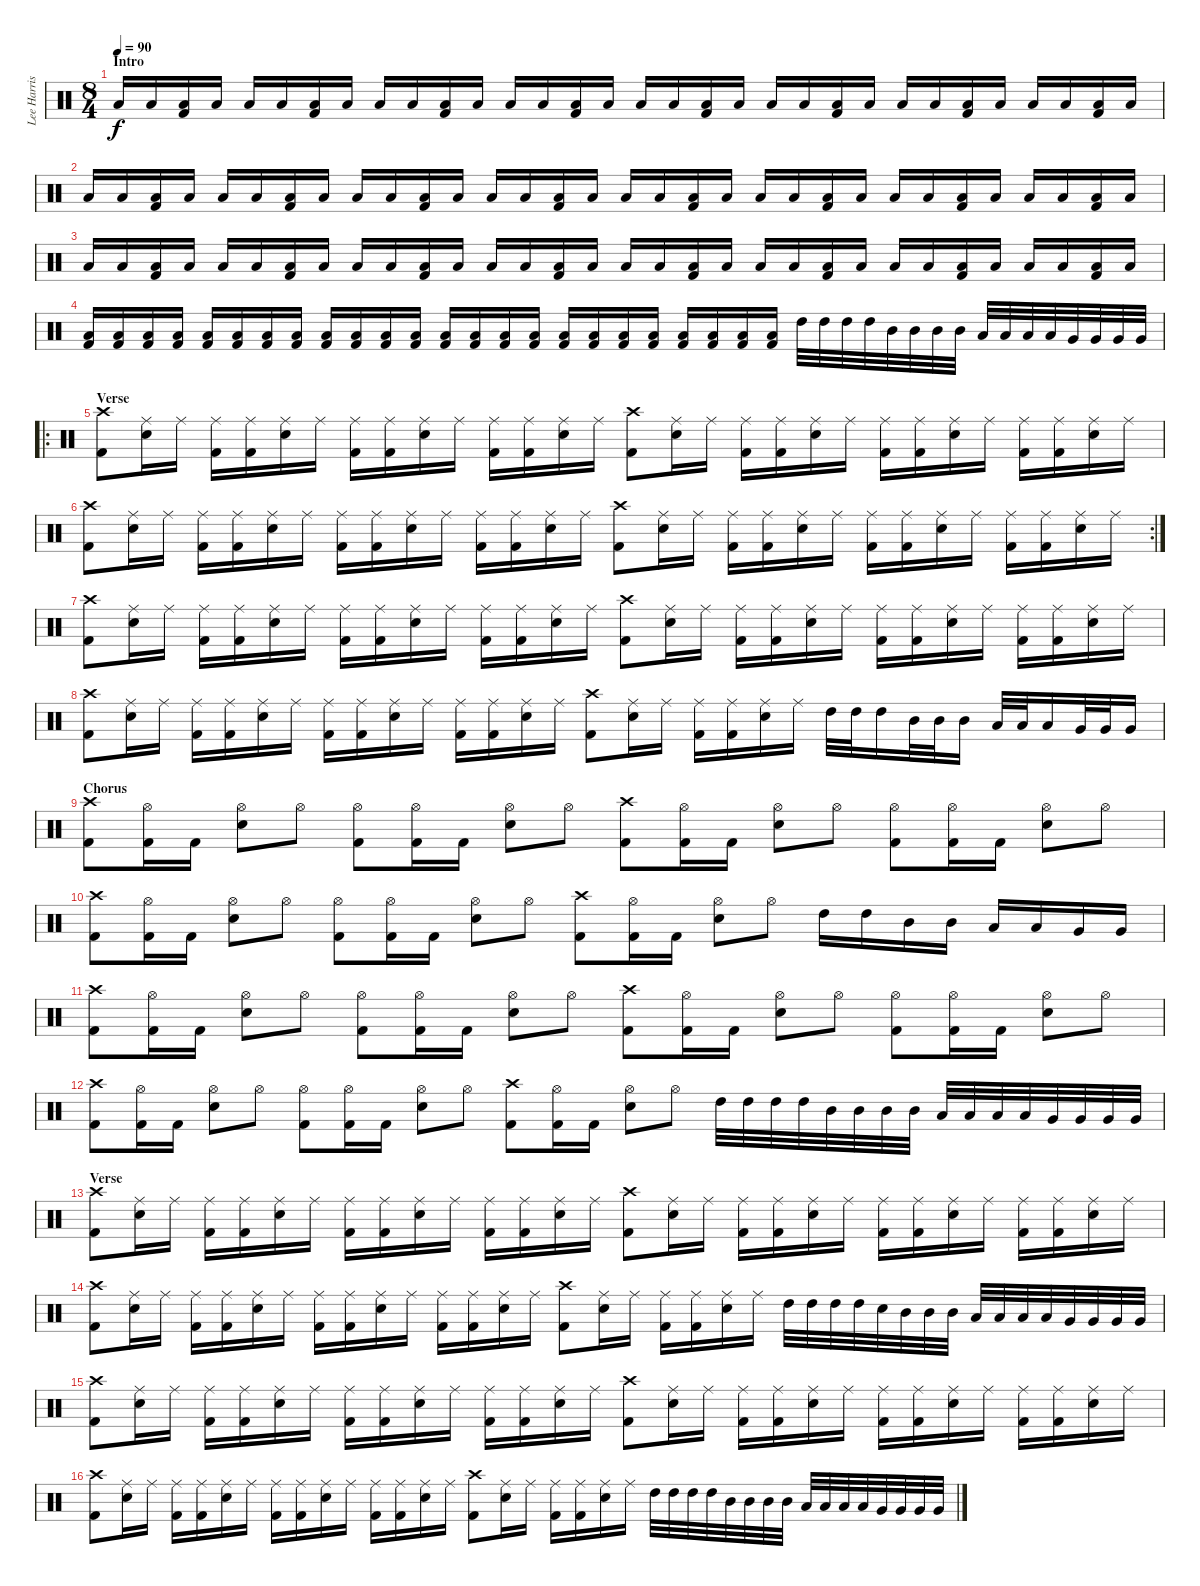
\track ("Lee Harris" "Lee Harris") {instrument percussion}
\staff {score}
\articulation defaults
\ts (8 4)
\section ("" "Intro")
\tempo 90
\clef neutral
\ks c "Low Floor Tom (hit)".16{dy f} "Low Floor Tom (hit)".16
("Low Floor Tom (hit)" "Kick (hit) 2").16 "Low Floor Tom (hit)".16 "Low Floor Tom (hit)".16 "Low Floor Tom (hit)".16 ("Low Floor Tom (hit)" "Kick (hit) 2").16 "Low Floor Tom (hit)".16 "Low Floor Tom (hit)".16 "Low Floor Tom (hit)".16 ("Low Floor Tom (hit)" "Kick (hit) 2").16 "Low Floor Tom (hit)".16 "Low Floor Tom (hit)".16 "Low Floor Tom (hit)".16 ("Low Floor Tom (hit)" "Kick (hit) 2").16 "Low Floor Tom (hit)".16 "Low Floor Tom (hit)".16 "Low Floor Tom (hit)".16 ("Low Floor Tom (hit)" "Kick (hit) 2").16 "Low Floor Tom (hit)".16 "Low Floor Tom (hit)".16 "Low Floor Tom (hit)".16 ("Low Floor Tom (hit)" "Kick (hit) 2").16 "Low Floor Tom (hit)".16 "Low Floor Tom (hit)".16 "Low Floor Tom (hit)".16 ("Low Floor Tom (hit)" "Kick (hit) 2").16 "Low Floor Tom (hit)".16 "Low Floor Tom (hit)".16 "Low Floor Tom (hit)".16 ("Low Floor Tom (hit)" "Kick (hit) 2").16 "Low Floor Tom (hit)".16 |
"Low Floor Tom (hit)".16 "Low Floor Tom (hit)".16 ("Low Floor Tom (hit)" "Kick (hit) 2").16 "Low Floor Tom (hit)".16 "Low Floor Tom (hit)".16 "Low Floor Tom (hit)".16 ("Low Floor Tom (hit)" "Kick (hit) 2").16 "Low Floor Tom (hit)".16 "Low Floor Tom (hit)".16 "Low Floor Tom (hit)".16 ("Low Floor Tom (hit)" "Kick (hit) 2").16 "Low Floor Tom (hit)".16 "Low Floor Tom (hit)".16 "Low Floor Tom (hit)".16 ("Low Floor Tom (hit)" "Kick (hit) 2").16 "Low Floor Tom (hit)".16 "Low Floor Tom (hit)".16 "Low Floor Tom (hit)".16 ("Low Floor Tom (hit)" "Kick (hit) 2").16 "Low Floor Tom (hit)".16 "Low Floor Tom (hit)".16 "Low Floor Tom (hit)".16 ("Low Floor Tom (hit)" "Kick (hit) 2").16 "Low Floor Tom (hit)".16 "Low Floor Tom (hit)".16 "Low Floor Tom (hit)".16 ("Low Floor Tom (hit)" "Kick (hit) 2").16 "Low Floor Tom (hit)".16 "Low Floor Tom (hit)".16 "Low Floor Tom (hit)".16 ("Low Floor Tom (hit)" "Kick (hit) 2").16 "Low Floor Tom (hit)".16 |
"Low Floor Tom (hit)".16 "Low Floor Tom (hit)".16 ("Low Floor Tom (hit)" "Kick (hit) 2").16 "Low Floor Tom (hit)".16 "Low Floor Tom (hit)".16 "Low Floor Tom (hit)".16 ("Low Floor Tom (hit)" "Kick (hit) 2").16 "Low Floor Tom (hit)".16 "Low Floor Tom (hit)".16 "Low Floor Tom (hit)".16 ("Low Floor Tom (hit)" "Kick (hit) 2").16 "Low Floor Tom (hit)".16 "Low Floor Tom (hit)".16 "Low Floor Tom (hit)".16 ("Low Floor Tom (hit)" "Kick (hit) 2").16 "Low Floor Tom (hit)".16 "Low Floor Tom (hit)".16 "Low Floor Tom (hit)".16 ("Low Floor Tom (hit)" "Kick (hit) 2").16 "Low Floor Tom (hit)".16 "Low Floor Tom (hit)".16 "Low Floor Tom (hit)".16 ("Low Floor Tom (hit)" "Kick (hit) 2").16 "Low Floor Tom (hit)".16 "Low Floor Tom (hit)".16 "Low Floor Tom (hit)".16 ("Low Floor Tom (hit)" "Kick (hit) 2").16 "Low Floor Tom (hit)".16 "Low Floor Tom (hit)".16 "Low Floor Tom (hit)".16 ("Low Floor Tom (hit)" "Kick (hit) 2").16 "Low Floor Tom (hit)".16 |
("Low Floor Tom (hit)" "Kick (hit) 2").16 ("Low Floor Tom (hit)" "Kick (hit) 2").16 ("Low Floor Tom (hit)" "Kick (hit) 2").16 ("Low Floor Tom (hit)" "Kick (hit) 2").16 ("Low Floor Tom (hit)" "Kick (hit) 2").16 ("Low Floor Tom (hit)" "Kick (hit) 2").16 ("Low Floor Tom (hit)" "Kick (hit) 2").16 ("Low Floor Tom (hit)" "Kick (hit) 2").16 ("Low Floor Tom (hit)" "Kick (hit) 2").16 ("Low Floor Tom (hit)" "Kick (hit) 2").16 ("Low Floor Tom (hit)" "Kick (hit) 2").16 ("Low Floor Tom (hit)" "Kick (hit) 2").16 ("Low Floor Tom (hit)" "Kick (hit) 2").16 ("Low Floor Tom (hit)" "Kick (hit) 2").16 ("Low Floor Tom (hit)" "Kick (hit) 2").16 ("Low Floor Tom (hit)" "Kick (hit) 2").16 ("Low Floor Tom (hit)" "Kick (hit) 2").16 ("Low Floor Tom (hit)" "Kick (hit) 2").16 ("Low Floor Tom (hit)" "Kick (hit) 2").16 ("Low Floor Tom (hit)" "Kick (hit) 2").16 ("Low Floor Tom (hit)" "Kick (hit) 2").16 ("Low Floor Tom (hit)" "Kick (hit) 2").16 ("Low Floor Tom (hit)" "Kick (hit) 2").16 ("Low Floor Tom (hit)" "Kick (hit) 2").16 "High Tom (hit)".32 "High Tom (hit)".32 "High Tom (hit)".32 "High Tom (hit)".32 "Mid Tom (hit)".32 "Mid Tom (hit)".32 "Mid Tom (hit)".32 "Mid Tom (hit)".32 "Low Tom (hit)".32 "Low Tom (hit)".32 "Low Tom (hit)".32 "Low Tom (hit)".32 "Very Low Tom (hit)".32 "Very Low Tom (hit)".32 "Very Low Tom (hit)".32 "Very Low Tom (hit)".32 |
\ro
\section ("" "Verse")
("Crash high (hit)" "Kick (hit) 2").8 ("Ride (middle)" "Electric Snare (hit)").16 "Ride (middle)".16 ("Ride (middle)" "Kick (hit) 2").16 ("Ride (middle)" "Kick (hit) 2").16 ("Ride (middle)" "Electric Snare (hit)").16 "Ride (middle)".16 ("Ride (middle)" "Kick (hit) 2").16 ("Ride (middle)" "Kick (hit) 2").16 ("Ride (middle)" "Electric Snare (hit)").16 "Ride (middle)".16 ("Ride (middle)" "Kick (hit) 2").16 ("Ride (middle)" "Kick (hit) 2").16 ("Ride (middle)" "Electric Snare (hit)").16 "Ride (middle)".16 ("Crash high (hit)" "Kick (hit) 2").8 ("Ride (middle)" "Electric Snare (hit)").16 "Ride (middle)".16 ("Ride (middle)" "Kick (hit) 2").16 ("Ride (middle)" "Kick (hit) 2").16 ("Ride (middle)" "Electric Snare (hit)").16 "Ride (middle)".16 ("Ride (middle)" "Kick (hit) 2").16 ("Ride (middle)" "Kick (hit) 2").16 ("Ride (middle)" "Electric Snare (hit)").16 "Ride (middle)".16 ("Ride (middle)" "Kick (hit) 2").16 ("Ride (middle)" "Kick (hit) 2").16 ("Ride (middle)" "Electric Snare (hit)").16 "Ride (middle)".16 |
\rc 2
("Crash high (hit)" "Kick (hit) 2").8 ("Ride (middle)" "Electric Snare (hit)").16 "Ride (middle)".16 ("Ride (middle)" "Kick (hit) 2").16 ("Ride (middle)" "Kick (hit) 2").16 ("Ride (middle)" "Electric Snare (hit)").16 "Ride (middle)".16 ("Ride (middle)" "Kick (hit) 2").16 ("Ride (middle)" "Kick (hit) 2").16 ("Ride (middle)" "Electric Snare (hit)").16 "Ride (middle)".16 ("Ride (middle)" "Kick (hit) 2").16 ("Ride (middle)" "Kick (hit) 2").16 ("Ride (middle)" "Electric Snare (hit)").16 "Ride (middle)".16 ("Crash high (hit)" "Kick (hit) 2").8 ("Ride (middle)" "Electric Snare (hit)").16 "Ride (middle)".16 ("Ride (middle)" "Kick (hit) 2").16 ("Ride (middle)" "Kick (hit) 2").16 ("Ride (middle)" "Electric Snare (hit)").16 "Ride (middle)".16 ("Ride (middle)" "Kick (hit) 2").16 ("Ride (middle)" "Kick (hit) 2").16 ("Ride (middle)" "Electric Snare (hit)").16 "Ride (middle)".16 ("Ride (middle)" "Kick (hit) 2").16 ("Ride (middle)" "Kick (hit) 2").16 ("Ride (middle)" "Electric Snare (hit)").16 "Ride (middle)".16 |
("Crash high (hit)" "Kick (hit) 2").8 ("Ride (middle)" "Electric Snare (hit)").16 "Ride (middle)".16 ("Ride (middle)" "Kick (hit) 2").16 ("Ride (middle)" "Kick (hit) 2").16 ("Ride (middle)" "Electric Snare (hit)").16 "Ride (middle)".16 ("Ride (middle)" "Kick (hit) 2").16 ("Ride (middle)" "Kick (hit) 2").16 ("Ride (middle)" "Electric Snare (hit)").16 "Ride (middle)".16 ("Ride (middle)" "Kick (hit) 2").16 ("Ride (middle)" "Kick (hit) 2").16 ("Ride (middle)" "Electric Snare (hit)").16 "Ride (middle)".16 ("Crash high (hit)" "Kick (hit) 2").8 ("Ride (middle)" "Electric Snare (hit)").16 "Ride (middle)".16 ("Ride (middle)" "Kick (hit) 2").16 ("Ride (middle)" "Kick (hit) 2").16 ("Ride (middle)" "Electric Snare (hit)").16 "Ride (middle)".16 ("Ride (middle)" "Kick (hit) 2").16 ("Ride (middle)" "Kick (hit) 2").16 ("Ride (middle)" "Electric Snare (hit)").16 "Ride (middle)".16 ("Ride (middle)" "Kick (hit) 2").16 ("Ride (middle)" "Kick (hit) 2").16 ("Ride (middle)" "Electric Snare (hit)").16 "Ride (middle)".16 |
("Crash high (hit)" "Kick (hit) 2").8 ("Ride (middle)" "Electric Snare (hit)").16 "Ride (middle)".16 ("Ride (middle)" "Kick (hit) 2").16 ("Ride (middle)" "Kick (hit) 2").16 ("Ride (middle)" "Electric Snare (hit)").16 "Ride (middle)".16 ("Ride (middle)" "Kick (hit) 2").16 ("Ride (middle)" "Kick (hit) 2").16 ("Ride (middle)" "Electric Snare (hit)").16 "Ride (middle)".16 ("Ride (middle)" "Kick (hit) 2").16 ("Ride (middle)" "Kick (hit) 2").16 ("Ride (middle)" "Electric Snare (hit)").16 "Ride (middle)".16 ("Crash high (hit)" "Kick (hit) 2").8 ("Ride (middle)" "Electric Snare (hit)").16 "Ride (middle)".16 ("Ride (middle)" "Kick (hit) 2").16 ("Ride (middle)" "Kick (hit) 2").16 ("Ride (middle)" "Electric Snare (hit)").16 "Ride (middle)".16 "High Tom (hit)".32 "High Tom (hit)".32 "High Tom (hit)".16 "Mid Tom (hit)".32 "Mid Tom (hit)".32 "Mid Tom (hit)".16 "Low Tom (hit)".32 "Low Tom (hit)".32 "Low Tom (hit)".16 "Very Low Tom (hit)".32 "Very Low Tom (hit)".32 "Very Low Tom (hit)".16 |
\section ("" "Chorus")
("Crash high (hit)" "Kick (hit) 2").8 ("Hi-Hat (open)" "Kick (hit) 2").16 "Kick (hit) 2".16 ("Hi-Hat (open)" "Electric Snare (hit)").8 "Hi-Hat (open)".8 ("Hi-Hat (open)" "Kick (hit) 2").8 ("Hi-Hat (open)" "Kick (hit) 2").16 "Kick (hit) 2".16 ("Hi-Hat (open)" "Electric Snare (hit)").8 "Hi-Hat (open)".8 ("Crash high (hit)" "Kick (hit) 2").8 ("Hi-Hat (open)" "Kick (hit) 2").16 "Kick (hit) 2".16 ("Hi-Hat (open)" "Electric Snare (hit)").8 "Hi-Hat (open)".8 ("Hi-Hat (open)" "Kick (hit) 2").8 ("Hi-Hat (open)" "Kick (hit) 2").16 "Kick (hit) 2".16 ("Hi-Hat (open)" "Electric Snare (hit)").8 "Hi-Hat (open)".8 |
("Crash high (hit)" "Kick (hit) 2").8 ("Hi-Hat (open)" "Kick (hit) 2").16 "Kick (hit) 2".16 ("Hi-Hat (open)" "Electric Snare (hit)").8 "Hi-Hat (open)".8 ("Hi-Hat (open)" "Kick (hit) 2").8 ("Hi-Hat (open)" "Kick (hit) 2").16 "Kick (hit) 2".16 ("Hi-Hat (open)" "Electric Snare (hit)").8 "Hi-Hat (open)".8 ("Crash high (hit)" "Kick (hit) 2").8 ("Hi-Hat (open)" "Kick (hit) 2").16 "Kick (hit) 2".16 ("Hi-Hat (open)" "Electric Snare (hit)").8 "Hi-Hat (open)".8 "High Tom (hit)".16 "High Tom (hit)".16 "Mid Tom (hit)".16 "Mid Tom (hit)".16 "Low Tom (hit)".16 "Low Tom (hit)".16 "Very Low Tom (hit)".16 "Very Low Tom (hit)".16 |
("Crash high (hit)" "Kick (hit) 2").8 ("Hi-Hat (open)" "Kick (hit) 2").16 "Kick (hit) 2".16 ("Hi-Hat (open)" "Electric Snare (hit)").8 "Hi-Hat (open)".8 ("Hi-Hat (open)" "Kick (hit) 2").8 ("Hi-Hat (open)" "Kick (hit) 2").16 "Kick (hit) 2".16 ("Hi-Hat (open)" "Electric Snare (hit)").8 "Hi-Hat (open)".8 ("Crash high (hit)" "Kick (hit) 2").8 ("Hi-Hat (open)" "Kick (hit) 2").16 "Kick (hit) 2".16 ("Hi-Hat (open)" "Electric Snare (hit)").8 "Hi-Hat (open)".8 ("Hi-Hat (open)" "Kick (hit) 2").8 ("Hi-Hat (open)" "Kick (hit) 2").16 "Kick (hit) 2".16 ("Hi-Hat (open)" "Electric Snare (hit)").8 "Hi-Hat (open)".8 |
("Crash high (hit)" "Kick (hit) 2").8 ("Hi-Hat (open)" "Kick (hit) 2").16 "Kick (hit) 2".16 ("Hi-Hat (open)" "Electric Snare (hit)").8 "Hi-Hat (open)".8 ("Hi-Hat (open)" "Kick (hit) 2").8 ("Hi-Hat (open)" "Kick (hit) 2").16 "Kick (hit) 2".16 ("Hi-Hat (open)" "Electric Snare (hit)").8 "Hi-Hat (open)".8 ("Crash high (hit)" "Kick (hit) 2").8 ("Hi-Hat (open)" "Kick (hit) 2").16 "Kick (hit) 2".16 ("Hi-Hat (open)" "Electric Snare (hit)").8 "Hi-Hat (open)".8 "High Tom (hit)".32 "High Tom (hit)".32 "High Tom (hit)".32 "High Tom (hit)".32 "Mid Tom (hit)".32 "Mid Tom (hit)".32 "Mid Tom (hit)".32 "Mid Tom (hit)".32 "Low Tom (hit)".32 "Low Tom (hit)".32 "Low Tom (hit)".32 "Low Tom (hit)".32 "Very Low Tom (hit)".32 "Very Low Tom (hit)".32 "Very Low Tom (hit)".32 "Very Low Tom (hit)".32 |
\section ("" "Verse")
("Crash high (hit)" "Kick (hit) 2").8 ("Ride (middle)" "Electric Snare (hit)").16 "Ride (middle)".16 ("Ride (middle)" "Kick (hit) 2").16 ("Ride (middle)" "Kick (hit) 2").16 ("Ride (middle)" "Electric Snare (hit)").16 "Ride (middle)".16 ("Ride (middle)" "Kick (hit) 2").16 ("Ride (middle)" "Kick (hit) 2").16 ("Ride (middle)" "Electric Snare (hit)").16 "Ride (middle)".16 ("Ride (middle)" "Kick (hit) 2").16 ("Ride (middle)" "Kick (hit) 2").16 ("Ride (middle)" "Electric Snare (hit)").16 "Ride (middle)".16 ("Crash high (hit)" "Kick (hit) 2").8 ("Ride (middle)" "Electric Snare (hit)").16 "Ride (middle)".16 ("Ride (middle)" "Kick (hit) 2").16 ("Ride (middle)" "Kick (hit) 2").16 ("Ride (middle)" "Electric Snare (hit)").16 "Ride (middle)".16 ("Ride (middle)" "Kick (hit) 2").16 ("Ride (middle)" "Kick (hit) 2").16 ("Ride (middle)" "Electric Snare (hit)").16 "Ride (middle)".16 ("Ride (middle)" "Kick (hit) 2").16 ("Ride (middle)" "Kick (hit) 2").16 ("Ride (middle)" "Electric Snare (hit)").16 "Ride (middle)".16 |
("Crash high (hit)" "Kick (hit) 2").8 ("Ride (middle)" "Electric Snare (hit)").16 "Ride (middle)".16 ("Ride (middle)" "Kick (hit) 2").16 ("Ride (middle)" "Kick (hit) 2").16 ("Ride (middle)" "Electric Snare (hit)").16 "Ride (middle)".16 ("Ride (middle)" "Kick (hit) 2").16 ("Ride (middle)" "Kick (hit) 2").16 ("Ride (middle)" "Electric Snare (hit)").16 "Ride (middle)".16 ("Ride (middle)" "Kick (hit) 2").16 ("Ride (middle)" "Kick (hit) 2").16 ("Ride (middle)" "Electric Snare (hit)").16 "Ride (middle)".16 ("Crash high (hit)" "Kick (hit) 2").8 ("Ride (middle)" "Electric Snare (hit)").16 "Ride (middle)".16 ("Ride (middle)" "Kick (hit) 2").16 ("Ride (middle)" "Kick (hit) 2").16 ("Ride (middle)" "Electric Snare (hit)").16 "Ride (middle)".16 "High Tom (hit)".32 "High Tom (hit)".32 "High Tom (hit)".32 "High Tom (hit)".32 "Electric Snare (hit)".32 "Mid Tom (hit)".32 "Mid Tom (hit)".32 "Mid Tom (hit)".32 "Low Tom (hit)".32 "Low Tom (hit)".32 "Low Tom (hit)".32 "Low Tom (hit)".32 "Very Low Tom (hit)".32 "Very Low Tom (hit)".32 "Very Low Tom (hit)".32 "Very Low Tom (hit)".32 |
("Crash high (hit)" "Kick (hit) 2").8 ("Ride (middle)" "Electric Snare (hit)").16 "Ride (middle)".16 ("Ride (middle)" "Kick (hit) 2").16 ("Ride (middle)" "Kick (hit) 2").16 ("Ride (middle)" "Electric Snare (hit)").16 "Ride (middle)".16 ("Ride (middle)" "Kick (hit) 2").16 ("Ride (middle)" "Kick (hit) 2").16 ("Ride (middle)" "Electric Snare (hit)").16 "Ride (middle)".16 ("Ride (middle)" "Kick (hit) 2").16 ("Ride (middle)" "Kick (hit) 2").16 ("Ride (middle)" "Electric Snare (hit)").16 "Ride (middle)".16 ("Crash high (hit)" "Kick (hit) 2").8 ("Ride (middle)" "Electric Snare (hit)").16 "Ride (middle)".16 ("Ride (middle)" "Kick (hit) 2").16 ("Ride (middle)" "Kick (hit) 2").16 ("Ride (middle)" "Electric Snare (hit)").16 "Ride (middle)".16 ("Ride (middle)" "Kick (hit) 2").16 ("Ride (middle)" "Kick (hit) 2").16 ("Ride (middle)" "Electric Snare (hit)").16 "Ride (middle)".16 ("Ride (middle)" "Kick (hit) 2").16 ("Ride (middle)" "Kick (hit) 2").16 ("Ride (middle)" "Electric Snare (hit)").16 "Ride (middle)".16 |
("Crash high (hit)" "Kick (hit) 2").8 ("Ride (middle)" "Electric Snare (hit)").16 "Ride (middle)".16 ("Ride (middle)" "Kick (hit) 2").16 ("Ride (middle)" "Kick (hit) 2").16 ("Ride (middle)" "Electric Snare (hit)").16 "Ride (middle)".16 ("Ride (middle)" "Kick (hit) 2").16 ("Ride (middle)" "Kick (hit) 2").16 ("Ride (middle)" "Electric Snare (hit)").16 "Ride (middle)".16 ("Ride (middle)" "Kick (hit) 2").16 ("Ride (middle)" "Kick (hit) 2").16 ("Ride (middle)" "Electric Snare (hit)").16 "Ride (middle)".16 ("Crash high (hit)" "Kick (hit) 2").8 ("Ride (middle)" "Electric Snare (hit)").16 "Ride (middle)".16 ("Ride (middle)" "Kick (hit) 2").16 ("Ride (middle)" "Kick (hit) 2").16 ("Ride (middle)" "Electric Snare (hit)").16 "Ride (middle)".16 "High Tom (hit)".32 "High Tom (hit)".32 "High Tom (hit)".32 "High Tom (hit)".32 "Mid Tom (hit)".32 "Mid Tom (hit)".32 "Mid Tom (hit)".32 "Mid Tom (hit)".32 "Low Tom (hit)".32 "Low Tom (hit)".32 "Low Tom (hit)".32 "Low Tom (hit)".32 "Very Low Tom (hit)".32 "Very Low Tom (hit)".32 "Very Low Tom (hit)".32 "Very Low Tom (hit)".32
